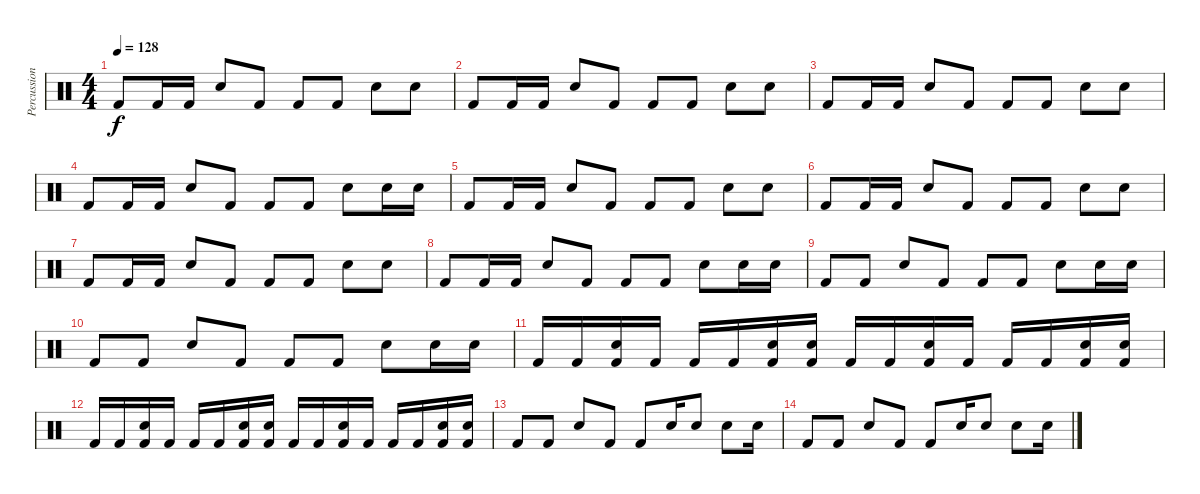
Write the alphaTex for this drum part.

\track ("Percussion" "Percussion") {instrument percussion}
\staff {score}
\articulation defaults
\ts (4 4)
\tempo 128
\clef neutral
\ks c "Kick (hit) 2".8{dy f} "Kick (hit) 2".16 "Kick (hit) 2".16 "Snare (hit) 2".8 "Kick (hit) 2".8 "Kick (hit) 2".8 "Kick (hit) 2".8 "Snare (hit) 2".8 "Snare (hit) 2".8
|
"Kick (hit) 2".8 "Kick (hit) 2".16 "Kick (hit) 2".16 "Snare (hit) 2".8 "Kick (hit) 2".8 "Kick (hit) 2".8 "Kick (hit) 2".8 "Snare (hit) 2".8 "Snare (hit) 2".8 |
"Kick (hit) 2".8 "Kick (hit) 2".16 "Kick (hit) 2".16 "Snare (hit) 2".8 "Kick (hit) 2".8 "Kick (hit) 2".8 "Kick (hit) 2".8 "Snare (hit) 2".8 "Snare (hit) 2".8 |
"Kick (hit) 2".8 "Kick (hit) 2".16 "Kick (hit) 2".16 "Snare (hit) 2".8 "Kick (hit) 2".8 "Kick (hit) 2".8 "Kick (hit) 2".8 "Snare (hit) 2".8 "Snare (hit) 2".16 "Snare (hit) 2".16 |
"Kick (hit) 2".8 "Kick (hit) 2".16 "Kick (hit) 2".16 "Snare (hit) 2".8 "Kick (hit) 2".8 "Kick (hit) 2".8 "Kick (hit) 2".8 "Snare (hit) 2".8 "Snare (hit) 2".8 |
"Kick (hit) 2".8 "Kick (hit) 2".16 "Kick (hit) 2".16 "Snare (hit) 2".8 "Kick (hit) 2".8 "Kick (hit) 2".8 "Kick (hit) 2".8 "Snare (hit) 2".8 "Snare (hit) 2".8 |
"Kick (hit) 2".8 "Kick (hit) 2".16 "Kick (hit) 2".16 "Snare (hit) 2".8 "Kick (hit) 2".8 "Kick (hit) 2".8 "Kick (hit) 2".8 "Snare (hit) 2".8 "Snare (hit) 2".8 |
"Kick (hit) 2".8 "Kick (hit) 2".16 "Kick (hit) 2".16 "Snare (hit) 2".8 "Kick (hit) 2".8 "Kick (hit) 2".8 "Kick (hit) 2".8 "Snare (hit) 2".8 "Snare (hit) 2".16 "Snare (hit) 2".16 |
"Kick (hit) 2".8 "Kick (hit) 2".8 "Snare (hit) 2".8 "Kick (hit) 2".8 "Kick (hit) 2".8 "Kick (hit) 2".8 "Snare (hit) 2".8 "Snare (hit) 2".16 "Snare (hit) 2".16 |
"Kick (hit) 2".8 "Kick (hit) 2".8 "Snare (hit) 2".8 "Kick (hit) 2".8 "Kick (hit) 2".8 "Kick (hit) 2".8 "Snare (hit) 2".8 "Snare (hit) 2".16 "Snare (hit) 2".16 |
"Kick (hit) 2".16 "Kick (hit) 2".16 ("Snare (hit) 2" "Kick (hit) 2").16 "Kick (hit) 2".16 "Kick (hit) 2".16 "Kick (hit) 2".16 ("Snare (hit) 2" "Kick (hit) 2").16 ("Snare (hit) 2" "Kick (hit) 2").16 "Kick (hit) 2".16 "Kick (hit) 2".16 ("Snare (hit) 2" "Kick (hit) 2").16 "Kick (hit) 2".16 "Kick (hit) 2".16 "Kick (hit) 2".16 ("Snare (hit) 2" "Kick (hit) 2").16 ("Snare (hit) 2" "Kick (hit) 2").16 |
"Kick (hit) 2".16 "Kick (hit) 2".16 ("Snare (hit) 2" "Kick (hit) 2").16 "Kick (hit) 2".16 "Kick (hit) 2".16 "Kick (hit) 2".16 ("Snare (hit) 2" "Kick (hit) 2").16 ("Snare (hit) 2" "Kick (hit) 2").16 "Kick (hit) 2".16 "Kick (hit) 2".16 ("Snare (hit) 2" "Kick (hit) 2").16 "Kick (hit) 2".16 "Kick (hit) 2".16 "Kick (hit) 2".16 ("Snare (hit) 2" "Kick (hit) 2").16 ("Snare (hit) 2" "Kick (hit) 2").16 |
"Kick (hit) 2".8 "Kick (hit) 2".8 "Snare (hit) 2".8 "Kick (hit) 2".8 "Kick (hit) 2".8 "Snare (hit) 2".16 "Snare (hit) 2".8 "Snare (hit) 2".8 "Snare (hit) 2".16 |
"Kick (hit) 2".8 "Kick (hit) 2".8 "Snare (hit) 2".8 "Kick (hit) 2".8 "Kick (hit) 2".8 "Snare (hit) 2".16 "Snare (hit) 2".8 "Snare (hit) 2".8 "Snare (hit) 2".16
